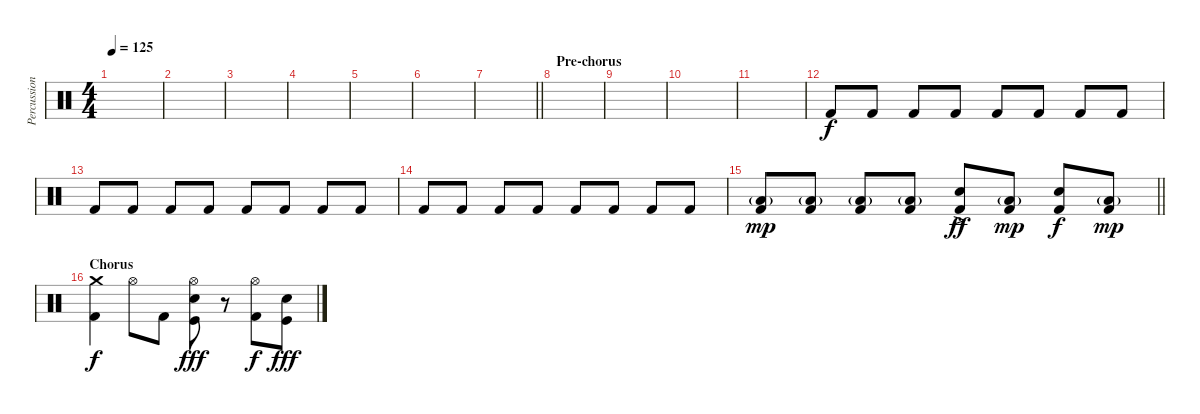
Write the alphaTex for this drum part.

\track ("Percussion" "Percussion") {instrument percussion}
\staff {score}
\articulation defaults
\ts (4 4)
\tempo 125
\clef neutral
\ks c
|
|
|
|
|
|
\barLineRight lightlight
|
\section ("" "Pre-chorus")
|
|
|
|
"Kick (hit) 2".8{volume 13} "Kick (hit) 2".8 "Kick (hit) 2".8 "Kick (hit) 2".8 "Kick (hit) 2".8 "Kick (hit) 2".8 "Kick (hit) 2".8 "Kick (hit) 2".8 |
"Kick (hit) 2".8 "Kick (hit) 2".8 "Kick (hit) 2".8 "Kick (hit) 2".8 "Kick (hit) 2".8 "Kick (hit) 2".8 "Kick (hit) 2".8 "Kick (hit) 2".8 |
"Kick (hit) 2".8 "Kick (hit) 2".8 "Kick (hit) 2".8 "Kick (hit) 2".8 "Kick (hit) 2".8 "Kick (hit) 2".8 "Kick (hit) 2".8 "Kick (hit) 2".8 |
\barLineRight lightlight
("Low Floor Tom (hit)"{g} "Kick (hit) 2").8{dy mp} ("Low Floor Tom (hit)"{g} "Kick (hit) 2").8 ("Low Floor Tom (hit)"{g} "Kick (hit) 2").8 ("Low Floor Tom (hit)"{g} "Kick (hit) 2").8 ("Snare (hit) 2"{ac} "Kick (hit) 2").8{dy ff} ("Low Floor Tom (hit)"{g} "Kick (hit) 2").8{dy mp} ("Snare (hit) 2" "Kick (hit) 2").8{dy f} ("Low Floor Tom (hit)"{g} "Kick (hit) 2").8{dy mp} |
\section ("" "Chorus")
("Crash medium (hit)" "Kick (hit) 2").4{dy f} "Hi-Hat (open)".8 "Kick (hit) 2".8 ("Hi-Hat (open)" "Electric Snare (hit)" "Kick (hit)").8{dy fff} r.8 ("Hi-Hat (open)" "Kick (hit) 2").8{dy f} ("Electric Snare (hit)" "Kick (hit)").8{dy fff}
